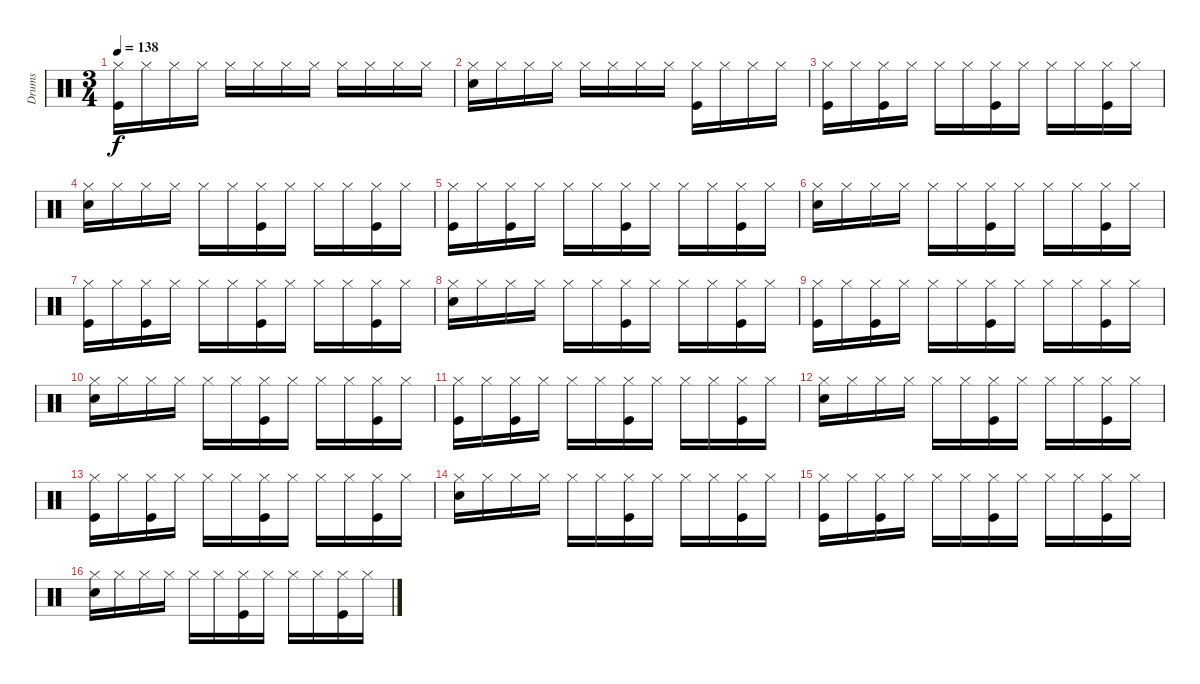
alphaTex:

\track ("Drums" "Drums") {instrument percussion}
\staff {score}
\articulation defaults
\ts (3 4)
\tempo 138
\clef neutral
\ks c
("Hi-Hat (closed)" "Kick (hit)").16{dy f} "Hi-Hat (closed)".16 "Hi-Hat (closed)".16 "Hi-Hat (closed)".16 "Hi-Hat (closed)".16 "Hi-Hat (closed)".16 "Hi-Hat (closed)".16 "Hi-Hat (closed)".16 "Hi-Hat (closed)".16 "Hi-Hat (closed)".16 "Hi-Hat (closed)".16 "Hi-Hat (closed)".16 |
("Hi-Hat (closed)" "Electric Snare (hit)").16 "Hi-Hat (closed)".16 "Hi-Hat (closed)".16 "Hi-Hat (closed)".16 "Hi-Hat (closed)".16 "Hi-Hat (closed)".16 "Hi-Hat (closed)".16 "Hi-Hat (closed)".16 ("Hi-Hat (closed)" "Kick (hit)").16 "Hi-Hat (closed)".16 "Hi-Hat (closed)".16 "Hi-Hat (closed)".16 |
("Hi-Hat (closed)" "Kick (hit)").16 "Hi-Hat (closed)".16 ("Hi-Hat (closed)" "Kick (hit)").16 "Hi-Hat (closed)".16 "Hi-Hat (closed)".16 "Hi-Hat (closed)".16 ("Hi-Hat (closed)" "Kick (hit)").16 "Hi-Hat (closed)".16 "Hi-Hat (closed)".16 "Hi-Hat (closed)".16 ("Hi-Hat (closed)" "Kick (hit)").16 "Hi-Hat (closed)".16 |
("Hi-Hat (closed)" "Electric Snare (hit)").16 "Hi-Hat (closed)".16 "Hi-Hat (closed)".16 "Hi-Hat (closed)".16 "Hi-Hat (closed)".16 "Hi-Hat (closed)".16 ("Hi-Hat (closed)" "Kick (hit)").16 "Hi-Hat (closed)".16 "Hi-Hat (closed)".16 "Hi-Hat (closed)".16 ("Hi-Hat (closed)" "Kick (hit)").16 "Hi-Hat (closed)".16 |
("Hi-Hat (closed)" "Kick (hit)").16 "Hi-Hat (closed)".16 ("Hi-Hat (closed)" "Kick (hit)").16 "Hi-Hat (closed)".16 "Hi-Hat (closed)".16 "Hi-Hat (closed)".16 ("Hi-Hat (closed)" "Kick (hit)").16 "Hi-Hat (closed)".16 "Hi-Hat (closed)".16 "Hi-Hat (closed)".16 ("Hi-Hat (closed)" "Kick (hit)").16 "Hi-Hat (closed)".16 |
("Hi-Hat (closed)" "Electric Snare (hit)").16 "Hi-Hat (closed)".16 "Hi-Hat (closed)".16 "Hi-Hat (closed)".16 "Hi-Hat (closed)".16 "Hi-Hat (closed)".16 ("Hi-Hat (closed)" "Kick (hit)").16 "Hi-Hat (closed)".16 "Hi-Hat (closed)".16 "Hi-Hat (closed)".16 ("Hi-Hat (closed)" "Kick (hit)").16 "Hi-Hat (closed)".16 |
("Hi-Hat (closed)" "Kick (hit)").16 "Hi-Hat (closed)".16 ("Hi-Hat (closed)" "Kick (hit)").16 "Hi-Hat (closed)".16 "Hi-Hat (closed)".16 "Hi-Hat (closed)".16 ("Hi-Hat (closed)" "Kick (hit)").16 "Hi-Hat (closed)".16 "Hi-Hat (closed)".16 "Hi-Hat (closed)".16 ("Hi-Hat (closed)" "Kick (hit)").16 "Hi-Hat (closed)".16 |
("Hi-Hat (closed)" "Electric Snare (hit)").16 "Hi-Hat (closed)".16 "Hi-Hat (closed)".16 "Hi-Hat (closed)".16 "Hi-Hat (closed)".16 "Hi-Hat (closed)".16 ("Hi-Hat (closed)" "Kick (hit)").16 "Hi-Hat (closed)".16 "Hi-Hat (closed)".16 "Hi-Hat (closed)".16 ("Hi-Hat (closed)" "Kick (hit)").16 "Hi-Hat (closed)".16 |
("Hi-Hat (closed)" "Kick (hit)").16 "Hi-Hat (closed)".16 ("Hi-Hat (closed)" "Kick (hit)").16 "Hi-Hat (closed)".16 "Hi-Hat (closed)".16 "Hi-Hat (closed)".16 ("Hi-Hat (closed)" "Kick (hit)").16 "Hi-Hat (closed)".16 "Hi-Hat (closed)".16 "Hi-Hat (closed)".16 ("Hi-Hat (closed)" "Kick (hit)").16 "Hi-Hat (closed)".16 |
("Hi-Hat (closed)" "Electric Snare (hit)").16 "Hi-Hat (closed)".16 "Hi-Hat (closed)".16 "Hi-Hat (closed)".16 "Hi-Hat (closed)".16 "Hi-Hat (closed)".16 ("Hi-Hat (closed)" "Kick (hit)").16 "Hi-Hat (closed)".16 "Hi-Hat (closed)".16 "Hi-Hat (closed)".16 ("Hi-Hat (closed)" "Kick (hit)").16 "Hi-Hat (closed)".16 |
("Hi-Hat (closed)" "Kick (hit)").16 "Hi-Hat (closed)".16 ("Hi-Hat (closed)" "Kick (hit)").16 "Hi-Hat (closed)".16 "Hi-Hat (closed)".16 "Hi-Hat (closed)".16 ("Hi-Hat (closed)" "Kick (hit)").16 "Hi-Hat (closed)".16 "Hi-Hat (closed)".16 "Hi-Hat (closed)".16 ("Hi-Hat (closed)" "Kick (hit)").16 "Hi-Hat (closed)".16 |
("Hi-Hat (closed)" "Electric Snare (hit)").16 "Hi-Hat (closed)".16 "Hi-Hat (closed)".16 "Hi-Hat (closed)".16 "Hi-Hat (closed)".16 "Hi-Hat (closed)".16 ("Hi-Hat (closed)" "Kick (hit)").16 "Hi-Hat (closed)".16 "Hi-Hat (closed)".16 "Hi-Hat (closed)".16 ("Hi-Hat (closed)" "Kick (hit)").16 "Hi-Hat (closed)".16 |
("Hi-Hat (closed)" "Kick (hit)").16 "Hi-Hat (closed)".16 ("Hi-Hat (closed)" "Kick (hit)").16 "Hi-Hat (closed)".16 "Hi-Hat (closed)".16 "Hi-Hat (closed)".16 ("Hi-Hat (closed)" "Kick (hit)").16 "Hi-Hat (closed)".16 "Hi-Hat (closed)".16 "Hi-Hat (closed)".16 ("Hi-Hat (closed)" "Kick (hit)").16 "Hi-Hat (closed)".16 |
("Hi-Hat (closed)" "Electric Snare (hit)").16 "Hi-Hat (closed)".16 "Hi-Hat (closed)".16 "Hi-Hat (closed)".16 "Hi-Hat (closed)".16 "Hi-Hat (closed)".16 ("Hi-Hat (closed)" "Kick (hit)").16 "Hi-Hat (closed)".16 "Hi-Hat (closed)".16 "Hi-Hat (closed)".16 ("Hi-Hat (closed)" "Kick (hit)").16 "Hi-Hat (closed)".16 |
("Hi-Hat (closed)" "Kick (hit)").16 "Hi-Hat (closed)".16 ("Hi-Hat (closed)" "Kick (hit)").16 "Hi-Hat (closed)".16 "Hi-Hat (closed)".16 "Hi-Hat (closed)".16 ("Hi-Hat (closed)" "Kick (hit)").16 "Hi-Hat (closed)".16 "Hi-Hat (closed)".16 "Hi-Hat (closed)".16 ("Hi-Hat (closed)" "Kick (hit)").16 "Hi-Hat (closed)".16 |
("Hi-Hat (closed)" "Electric Snare (hit)").16 "Hi-Hat (closed)".16 "Hi-Hat (closed)".16 "Hi-Hat (closed)".16 "Hi-Hat (closed)".16 "Hi-Hat (closed)".16 ("Hi-Hat (closed)" "Kick (hit)").16 "Hi-Hat (closed)".16 "Hi-Hat (closed)".16 "Hi-Hat (closed)".16 ("Hi-Hat (closed)" "Kick (hit)").16 "Hi-Hat (closed)".16
